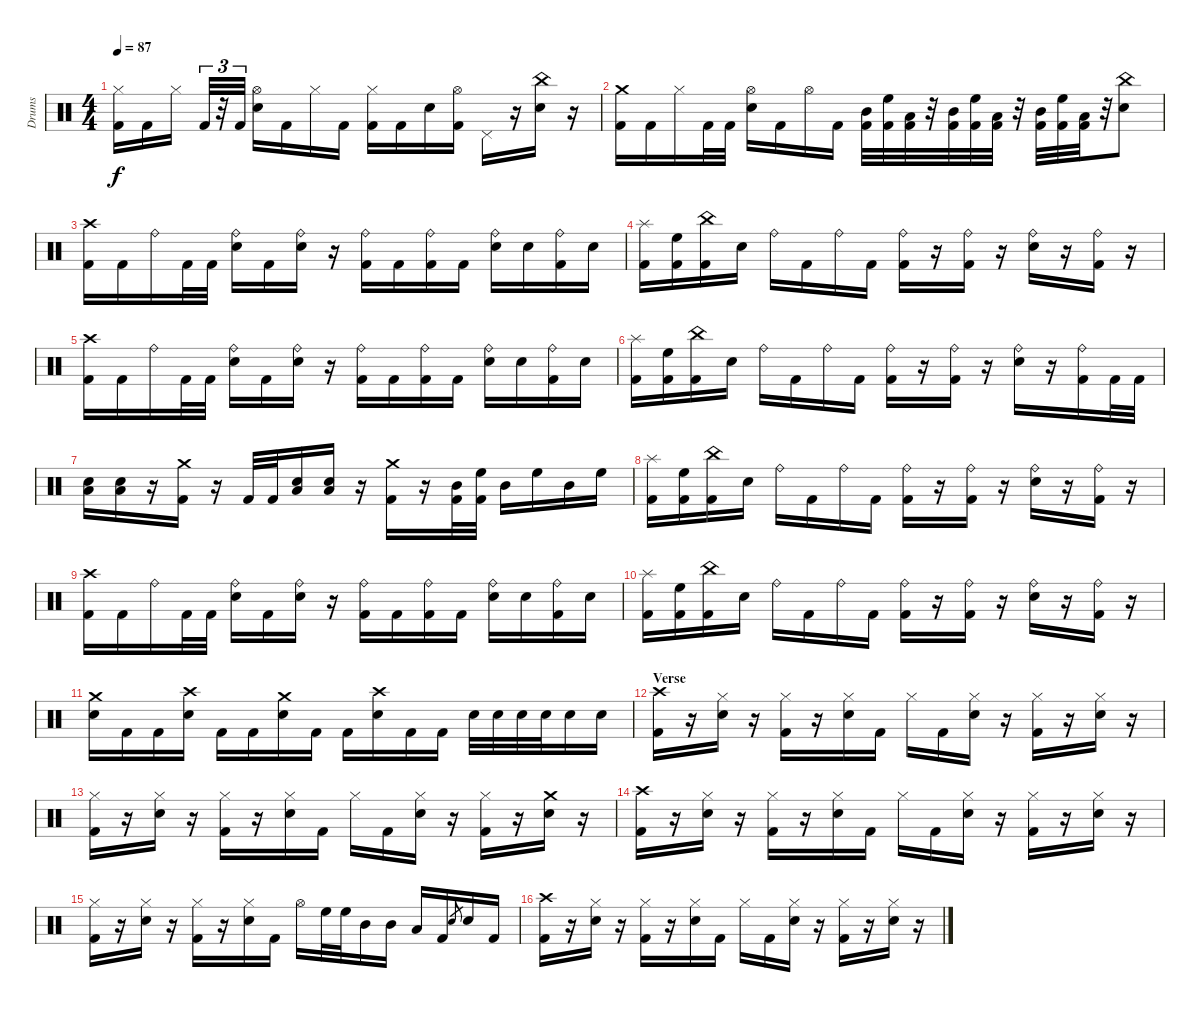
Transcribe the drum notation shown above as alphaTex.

\track ("Drums" "Drums") {instrument percussion}
\staff {score}
\articulation defaults
\ts (4 4)
\tempo 87
\clef neutral
\ks c
("Hi-Hat (closed)" "Kick (hit) 2").16{dy f} "Kick (hit) 2".16 "Hi-Hat (closed)".16 "Kick (hit) 2".32{tu (3 2)} r.32{tu (3 2)} "Kick (hit) 2".32{tu (3 2)} ("Hi-Hat (open)" "Electric Snare (hit)").16 "Kick (hit) 2".16 "Hi-Hat (closed)".16 "Kick (hit) 2".16 ("Hi-Hat (closed)" "Kick (hit) 2").16 "Kick (hit) 2".16 "Electric Snare (hit)".16 ("Hi-Hat (open)" "Kick (hit) 2").16 "Pedal Hi-Hat (hit)".16 r.16 ("China (hit)" "Electric Snare (hit)").16 r.16 |
("Crash medium (hit)" "Kick (hit) 2").16 "Kick (hit) 2".16 "Hi-Hat (closed)".16 "Kick (hit) 2".32 "Kick (hit) 2".32 ("Hi-Hat (open)" "Electric Snare (hit)").16 "Kick (hit) 2".16 "Hi-Hat (open)".16 "Kick (hit) 2".16 ("Mid Tom (hit)" "Kick (hit) 2").32 ("High Floor Tom (hit)" "Kick (hit) 2").32 ("Low Tom (hit)" "Kick (hit) 2").32 r.32 ("Mid Tom (hit)" "Kick (hit) 2").32 ("High Floor Tom (hit)" "Kick (hit) 2").32 ("Low Tom (hit)" "Kick (hit) 2").32 r.32 ("Mid Tom (hit)" "Kick (hit) 2").32 ("High Floor Tom (hit)" "Kick (hit) 2").32 ("Low Tom (hit)" "Kick (hit) 2").32 r.32 ("China (hit)" "Electric Snare (hit)").8 |
("Crash high (hit)" "Kick (hit) 2").16 "Kick (hit) 2".16 "Ride (bell)".16 "Kick (hit) 2".32 "Kick (hit) 2".32 ("Ride (bell)" "Electric Snare (hit)").16 "Kick (hit) 2".16 ("Ride (bell)" "Electric Snare (hit)").16 r.16 ("Ride (bell)" "Kick (hit) 2").16 "Kick (hit) 2".16 ("Ride (bell)" "Kick (hit) 2").16 "Kick (hit) 2".16 ("Ride (bell)" "Electric Snare (hit)").16 "Electric Snare (hit)".16 ("Ride (bell)" "Kick (hit) 2").16 "Electric Snare (hit)".16 |
("Splash (hit)" "Kick (hit) 2").16 ("High Floor Tom (hit)" "Kick (hit) 2").16 ("China (hit)" "Kick (hit) 2").16 "Electric Snare (hit)".16 "Ride (bell)".16 "Kick (hit) 2".16 "Ride (bell)".16 "Kick (hit) 2".16 ("Ride (bell)" "Kick (hit) 2").16 r.16 ("Ride (bell)" "Kick (hit) 2").16 r.16 ("Ride (bell)" "Electric Snare (hit)").16 r.16 ("Ride (bell)" "Kick (hit) 2").16 r.16 |
("Crash high (hit)" "Kick (hit) 2").16 "Kick (hit) 2".16 "Ride (bell)".16 "Kick (hit) 2".32 "Kick (hit) 2".32 ("Ride (bell)" "Electric Snare (hit)").16 "Kick (hit) 2".16 ("Ride (bell)" "Electric Snare (hit)").16 r.16 ("Ride (bell)" "Kick (hit) 2").16 "Kick (hit) 2".16 ("Ride (bell)" "Kick (hit) 2").16 "Kick (hit) 2".16 ("Ride (bell)" "Electric Snare (hit)").16 "Electric Snare (hit)".16 ("Ride (bell)" "Kick (hit) 2").16 "Electric Snare (hit)".16 |
("Splash (hit)" "Kick (hit) 2").16 ("High Floor Tom (hit)" "Kick (hit) 2").16 ("China (hit)" "Kick (hit) 2").16 "Electric Snare (hit)".16 "Ride (bell)".16 "Kick (hit) 2".16 "Ride (bell)".16 "Kick (hit) 2".16 ("Ride (bell)" "Kick (hit) 2").16 r.16 ("Ride (bell)" "Kick (hit) 2").16 r.16 ("Ride (bell)" "Electric Snare (hit)").16 r.16 ("Ride (bell)" "Kick (hit) 2").16 "Kick (hit) 2".32 "Kick (hit) 2".32 |
("Electric Snare (hit)" "Low Tom (hit)").16 ("Electric Snare (hit)" "Low Tom (hit)").16 r.16 ("Crash medium (hit)" "Kick (hit) 2").16 r.16 "Kick (hit) 2".32 "Kick (hit) 2".32 ("Electric Snare (hit)" "Low Tom (hit)").16 ("Electric Snare (hit)" "Low Tom (hit)").16 r.16 ("Crash medium (hit)" "Kick (hit) 2").16 r.16 ("Mid Tom (hit)" "Kick (hit) 2").32 ("High Floor Tom (hit)" "Kick (hit) 2").32 "Mid Tom (hit)".16 "High Floor Tom (hit)".16 "Mid Tom (hit)".16 "High Floor Tom (hit)".16 |
("Splash (hit)" "Kick (hit) 2").16 ("High Floor Tom (hit)" "Kick (hit) 2").16 ("China (hit)" "Kick (hit) 2").16 "Electric Snare (hit)".16 "Ride (bell)".16 "Kick (hit) 2".16 "Ride (bell)".16 "Kick (hit) 2".16 ("Ride (bell)" "Kick (hit) 2").16 r.16 ("Ride (bell)" "Kick (hit) 2").16 r.16 ("Ride (bell)" "Electric Snare (hit)").16 r.16 ("Ride (bell)" "Kick (hit) 2").16 r.16 |
("Crash high (hit)" "Kick (hit) 2").16 "Kick (hit) 2".16 "Ride (bell)".16 "Kick (hit) 2".32 "Kick (hit) 2".32 ("Ride (bell)" "Electric Snare (hit)").16 "Kick (hit) 2".16 ("Ride (bell)" "Electric Snare (hit)").16 r.16 ("Ride (bell)" "Kick (hit) 2").16 "Kick (hit) 2".16 ("Ride (bell)" "Kick (hit) 2").16 "Kick (hit) 2".16 ("Ride (bell)" "Electric Snare (hit)").16 "Electric Snare (hit)".16 ("Ride (bell)" "Kick (hit) 2").16 "Electric Snare (hit)".16 |
("Splash (hit)" "Kick (hit) 2").16 ("High Floor Tom (hit)" "Kick (hit) 2").16 ("China (hit)" "Kick (hit) 2").16 "Electric Snare (hit)".16 "Ride (bell)".16 "Kick (hit) 2".16 "Ride (bell)".16 "Kick (hit) 2".16 ("Ride (bell)" "Kick (hit) 2").16 r.16 ("Ride (bell)" "Kick (hit) 2").16 r.16 ("Ride (bell)" "Electric Snare (hit)").16 r.16 ("Ride (bell)" "Kick (hit) 2").16 r.16 |
("Crash medium (hit)" "Electric Snare (hit)").16 "Kick (hit) 2".16 "Kick (hit) 2".16 ("Crash high (hit)" "Electric Snare (hit)").16 "Kick (hit) 2".16 "Kick (hit) 2".16 ("Crash medium (hit)" "Electric Snare (hit)").16 "Kick (hit) 2".16 "Kick (hit) 2".16 ("Crash high (hit)" "Electric Snare (hit)").16 "Kick (hit) 2".16 "Kick (hit) 2".16 "Electric Snare (hit)".32 "Electric Snare (hit)".32 "Electric Snare (hit)".32 "Electric Snare (hit)".32 "Electric Snare (hit)".16 "Electric Snare (hit)".16 |
\section ("" "Verse")
("Crash high (hit)" "Kick (hit) 2").16 r.16 ("Hi-Hat (closed)" "Electric Snare (hit)").16 r.16 ("Hi-Hat (closed)" "Kick (hit) 2").16 r.16 ("Hi-Hat (closed)" "Electric Snare (hit)").16 "Kick (hit) 2".16 "Hi-Hat (closed)".16 "Kick (hit) 2".16 ("Hi-Hat (closed)" "Electric Snare (hit)").16 r.16 ("Hi-Hat (closed)" "Kick (hit) 2").16 r.16 ("Hi-Hat (closed)" "Electric Snare (hit)").16 r.16 |
("Hi-Hat (closed)" "Kick (hit) 2").16 r.16 ("Hi-Hat (closed)" "Electric Snare (hit)").16 r.16 ("Hi-Hat (closed)" "Kick (hit) 2").16 r.16 ("Hi-Hat (closed)" "Electric Snare (hit)").16 "Kick (hit) 2".16 "Hi-Hat (closed)".16 "Kick (hit) 2".16 ("Hi-Hat (closed)" "Electric Snare (hit)").16 r.16 ("Hi-Hat (closed)" "Kick (hit) 2").16 r.16 ("Crash medium (hit)" "Electric Snare (hit)").16 r.16 |
("Crash high (hit)" "Kick (hit) 2").16 r.16 ("Hi-Hat (closed)" "Electric Snare (hit)").16 r.16 ("Hi-Hat (closed)" "Kick (hit) 2").16 r.16 ("Hi-Hat (closed)" "Electric Snare (hit)").16 "Kick (hit) 2".16 "Hi-Hat (closed)".16 "Kick (hit) 2".16 ("Hi-Hat (closed)" "Electric Snare (hit)").16 r.16 ("Hi-Hat (closed)" "Kick (hit) 2").16 r.16 ("Hi-Hat (closed)" "Electric Snare (hit)").16 r.16 |
("Hi-Hat (closed)" "Kick (hit) 2").16 r.16 ("Hi-Hat (closed)" "Electric Snare (hit)").16 r.16 ("Hi-Hat (closed)" "Kick (hit) 2").16 r.16 ("Hi-Hat (closed)" "Electric Snare (hit)").16 "Kick (hit) 2".16 "Hi-Hat (open)".16 "High Floor Tom (hit)".32 "High Floor Tom (hit)".32 "Mid Tom (hit)".16 "Mid Tom (hit)".16 "Low Tom (hit)".16 "Kick (hit) 2".16 "Electric Snare (hit)".8{gr} "Electric Snare (hit)".16 "Kick (hit) 2".16 |
("Crash high (hit)" "Kick (hit) 2").16 r.16 ("Hi-Hat (closed)" "Electric Snare (hit)").16 r.16 ("Hi-Hat (closed)" "Kick (hit) 2").16 r.16 ("Hi-Hat (closed)" "Electric Snare (hit)").16 "Kick (hit) 2".16 "Hi-Hat (closed)".16 "Kick (hit) 2".16 ("Hi-Hat (closed)" "Electric Snare (hit)").16 r.16 ("Hi-Hat (closed)" "Kick (hit) 2").16 r.16 ("Hi-Hat (closed)" "Electric Snare (hit)").16 r.16
